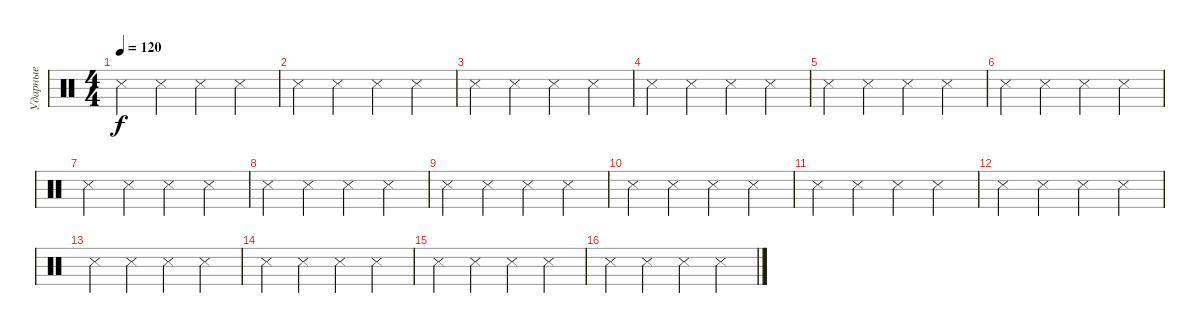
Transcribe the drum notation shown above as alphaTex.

\track ("Ударные" "Ударные") {mute instrument percussion}
\staff {score}
\articulation defaults
\ts (4 4)
\tempo 120
\clef neutral
\ks c "Metronome (hit)".4{dy f} "Metronome (hit)".4 "Metronome (hit)".4 "Metronome (hit)".4
|
"Metronome (hit)".4 "Metronome (hit)".4 "Metronome (hit)".4 "Metronome (hit)".4 |
"Metronome (hit)".4 "Metronome (hit)".4 "Metronome (hit)".4 "Metronome (hit)".4 |
"Metronome (hit)".4 "Metronome (hit)".4 "Metronome (hit)".4 "Metronome (hit)".4 |
"Metronome (hit)".4 "Metronome (hit)".4 "Metronome (hit)".4 "Metronome (hit)".4 |
"Metronome (hit)".4 "Metronome (hit)".4 "Metronome (hit)".4 "Metronome (hit)".4 |
"Metronome (hit)".4 "Metronome (hit)".4 "Metronome (hit)".4 "Metronome (hit)".4 |
"Metronome (hit)".4 "Metronome (hit)".4 "Metronome (hit)".4 "Metronome (hit)".4 |
"Metronome (hit)".4 "Metronome (hit)".4 "Metronome (hit)".4 "Metronome (hit)".4 |
"Metronome (hit)".4 "Metronome (hit)".4 "Metronome (hit)".4 "Metronome (hit)".4 |
"Metronome (hit)".4 "Metronome (hit)".4 "Metronome (hit)".4 "Metronome (hit)".4 |
"Metronome (hit)".4 "Metronome (hit)".4 "Metronome (hit)".4 "Metronome (hit)".4 |
"Metronome (hit)".4 "Metronome (hit)".4 "Metronome (hit)".4 "Metronome (hit)".4 |
"Metronome (hit)".4 "Metronome (hit)".4 "Metronome (hit)".4 "Metronome (hit)".4 |
"Metronome (hit)".4 "Metronome (hit)".4 "Metronome (hit)".4 "Metronome (hit)".4 |
"Metronome (hit)".4 "Metronome (hit)".4 "Metronome (hit)".4 "Metronome (hit)".4
